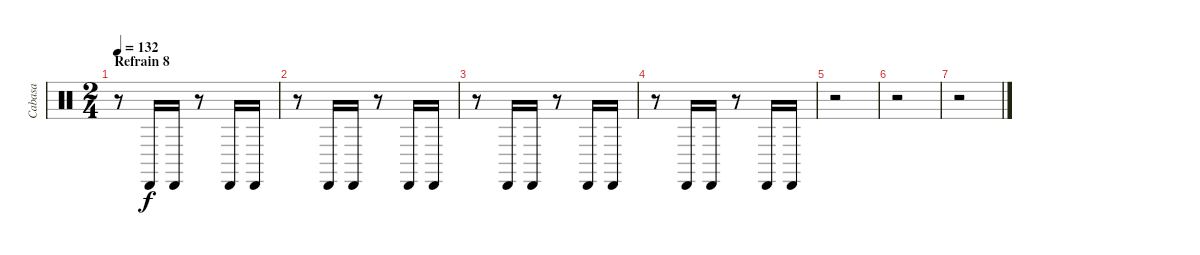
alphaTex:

\track ("Cabasa" "Cabasa") {instrument percussion}
\staff {score}
\articulation defaults
\ts (2 4)
\section ("" "Refrain 8")
\tempo 132
\clef neutral
\ks c
r.8{dy f} "Cabasa (hit)".16 "Cabasa (hit)".16 r.8 "Cabasa (hit)".16 "Cabasa (hit)".16 |
r.8 "Cabasa (hit)".16 "Cabasa (hit)".16 r.8 "Cabasa (hit)".16 "Cabasa (hit)".16 |
r.8 "Cabasa (hit)".16 "Cabasa (hit)".16 r.8 "Cabasa (hit)".16 "Cabasa (hit)".16 |
r.8 "Cabasa (hit)".16 "Cabasa (hit)".16 r.8 "Cabasa (hit)".16 "Cabasa (hit)".16 |
r.2 |
r.2 |
r.2
